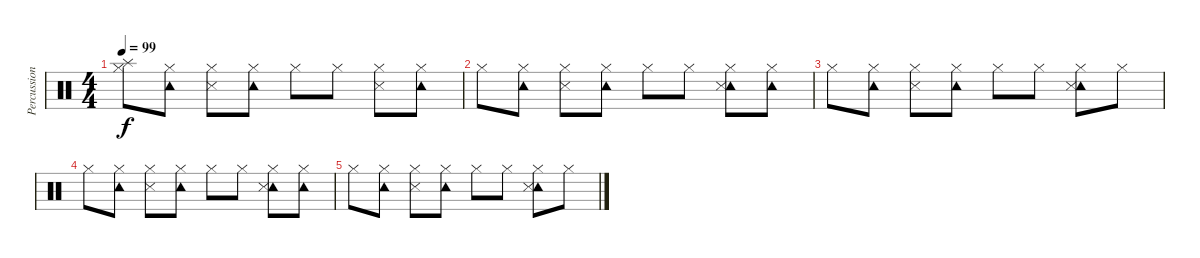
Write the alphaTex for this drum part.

\track ("Percussion" "Percussion") {instrument percussion}
\staff {score}
\articulation defaults
\ts (4 4)
\tempo 99
\clef neutral
\ks c
("Splash (hit)" "Hi-Hat (closed)").8{dy f} ("Tambourine (hit)" "Hi-Hat (closed)").8 ("Snare (side stick) 3" "Hi-Hat (closed)").8 ("Tambourine (hit)" "Hi-Hat (closed)").8 "Hi-Hat (closed)".8 "Hi-Hat (closed)".8 ("Snare (side stick) 3" "Hi-Hat (closed)").8 ("Tambourine (hit)" "Hi-Hat (closed)").8 |
"Hi-Hat (closed)".8 ("Tambourine (hit)" "Hi-Hat (closed)").8 ("Snare (side stick) 3" "Hi-Hat (closed)").8 ("Tambourine (hit)" "Hi-Hat (closed)").8 "Hi-Hat (closed)".8 "Hi-Hat (closed)".8 ("Tambourine (hit)" "Snare (side stick) 3" "Hi-Hat (closed)").8 ("Tambourine (hit)" "Hi-Hat (closed)").8 |
"Hi-Hat (closed)".8{volume 7} ("Tambourine (hit)" "Hi-Hat (closed)").8 ("Snare (side stick) 3" "Hi-Hat (closed)").8 ("Tambourine (hit)" "Hi-Hat (closed)").8 "Hi-Hat (closed)".8 "Hi-Hat (closed)".8 ("Tambourine (hit)" "Snare (side stick) 3" "Hi-Hat (closed)").8 "Hi-Hat (closed)".8 |
"Hi-Hat (closed)".8 ("Tambourine (hit)" "Hi-Hat (closed)").8 ("Snare (side stick) 3" "Hi-Hat (closed)").8 ("Tambourine (hit)" "Hi-Hat (closed)").8 "Hi-Hat (closed)".8 "Hi-Hat (closed)".8 ("Tambourine (hit)" "Snare (side stick) 3" "Hi-Hat (closed)").8 ("Tambourine (hit)" "Hi-Hat (closed)").8 |
"Hi-Hat (closed)".8{volume 0} ("Tambourine (hit)" "Hi-Hat (closed)").8 ("Snare (side stick) 3" "Hi-Hat (closed)").8 ("Tambourine (hit)" "Hi-Hat (closed)").8 "Hi-Hat (closed)".8 "Hi-Hat (closed)".8 ("Tambourine (hit)" "Snare (side stick) 3" "Hi-Hat (closed)").8 "Hi-Hat (closed)".8
